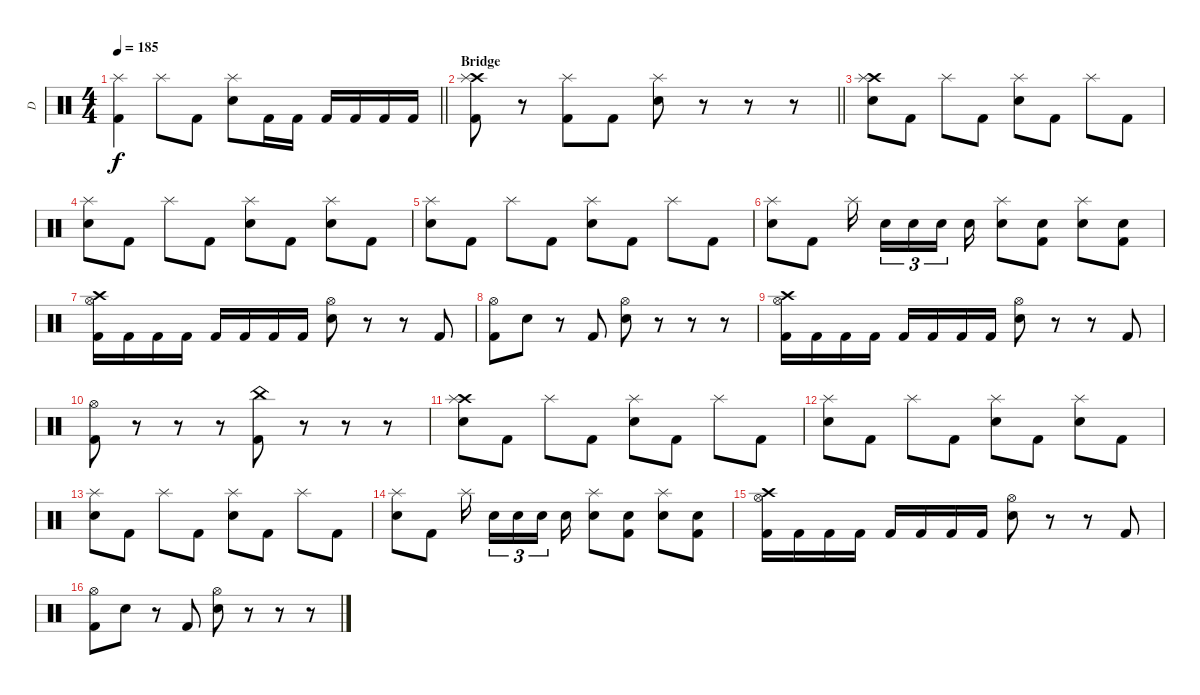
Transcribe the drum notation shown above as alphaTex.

\track ("D" "D") {instrument percussion}
\staff {score}
\articulation defaults
\ts (4 4)
\tempo 185
\clef neutral
\barLineRight lightlight
\ks c
("Kick (hit) 2" "Splash (hit)").4{dy f} "Splash (hit)".8 "Kick (hit) 2".8 ("Electric Snare (hit)" "Splash (hit)").8 "Kick (hit) 2".16 "Kick (hit) 2".16 "Kick (hit) 2".16 "Kick (hit) 2".16 "Kick (hit) 2".16 "Kick (hit) 2".16 |
\section ("" "Bridge")
\barLineRight lightlight
("Crash high (hit)" "Kick (hit) 2" "Splash (hit)").8 r.8 ("Kick (hit) 2" "Splash (hit)").8 "Kick (hit) 2".8 ("Electric Snare (hit)" "Splash (hit)").8 r.8 r.8 r.8 |
("Crash high (hit)" "Electric Snare (hit)" "Splash (hit)").8 "Kick (hit) 2".8 "Splash (hit)".8 "Kick (hit) 2".8 ("Electric Snare (hit)" "Splash (hit)").8 "Kick (hit) 2".8 "Splash (hit)".8 "Kick (hit) 2".8 |
("Electric Snare (hit)" "Splash (hit)").8 "Kick (hit) 2".8 "Splash (hit)".8 "Kick (hit) 2".8 ("Electric Snare (hit)" "Splash (hit)").8 "Kick (hit) 2".8 ("Electric Snare (hit)" "Splash (hit)").8 "Kick (hit) 2".8 |
("Electric Snare (hit)" "Splash (hit)").8 "Kick (hit) 2".8 "Splash (hit)".8 "Kick (hit) 2".8 ("Electric Snare (hit)" "Splash (hit)").8 "Kick (hit) 2".8 "Splash (hit)".8 "Kick (hit) 2".8 |
("Electric Snare (hit)" "Splash (hit)").8 "Kick (hit) 2".8 "Splash (hit)".16{beam splitsecondary} "Electric Snare (hit)".16{tu (3 2)} "Electric Snare (hit)".16{tu (3 2)} "Electric Snare (hit)".16{tu (3 2) beam splitsecondary} "Electric Snare (hit)".16 ("Electric Snare (hit)" "Splash (hit)").8 ("Electric Snare (hit)" "Kick (hit) 2").8 ("Electric Snare (hit)" "Splash (hit)").8 ("Electric Snare (hit)" "Kick (hit) 2").8 |
("Crash high (hit)" "Kick (hit) 2" "Hi-Hat (open)").16 "Kick (hit) 2".16 "Kick (hit) 2".16 "Kick (hit) 2".16 "Kick (hit) 2".16 "Kick (hit) 2".16 "Kick (hit) 2".16 "Kick (hit) 2".16 ("Electric Snare (hit)" "Hi-Hat (open)").8 r.8 r.8 "Kick (hit) 2".8 |
("Kick (hit) 2" "Hi-Hat (open)").8 "Electric Snare (hit)".8 r.8 "Kick (hit) 2".8 ("Electric Snare (hit)" "Hi-Hat (open)").8 r.8 r.8 r.8 |
("Crash high (hit)" "Kick (hit) 2" "Hi-Hat (open)").16 "Kick (hit) 2".16 "Kick (hit) 2".16 "Kick (hit) 2".16 "Kick (hit) 2".16 "Kick (hit) 2".16 "Kick (hit) 2".16 "Kick (hit) 2".16 ("Electric Snare (hit)" "Hi-Hat (open)").8 r.8 r.8 "Kick (hit) 2".8 |
("Kick (hit) 2" "Hi-Hat (open)").8 r.8 r.8 r.8 ("Kick (hit) 2" "China (hit)").8 r.8 r.8 r.8 |
("Crash high (hit)" "Electric Snare (hit)" "Splash (hit)").8 "Kick (hit) 2".8 "Splash (hit)".8 "Kick (hit) 2".8 ("Electric Snare (hit)" "Splash (hit)").8 "Kick (hit) 2".8 "Splash (hit)".8 "Kick (hit) 2".8 |
("Electric Snare (hit)" "Splash (hit)").8 "Kick (hit) 2".8 "Splash (hit)".8 "Kick (hit) 2".8 ("Electric Snare (hit)" "Splash (hit)").8 "Kick (hit) 2".8 ("Electric Snare (hit)" "Splash (hit)").8 "Kick (hit) 2".8 |
("Electric Snare (hit)" "Splash (hit)").8 "Kick (hit) 2".8 "Splash (hit)".8 "Kick (hit) 2".8 ("Electric Snare (hit)" "Splash (hit)").8 "Kick (hit) 2".8 "Splash (hit)".8 "Kick (hit) 2".8 |
("Electric Snare (hit)" "Splash (hit)").8 "Kick (hit) 2".8 "Splash (hit)".16{beam splitsecondary} "Electric Snare (hit)".16{tu (3 2)} "Electric Snare (hit)".16{tu (3 2)} "Electric Snare (hit)".16{tu (3 2) beam splitsecondary} "Electric Snare (hit)".16 ("Electric Snare (hit)" "Splash (hit)").8 ("Electric Snare (hit)" "Kick (hit) 2").8 ("Electric Snare (hit)" "Splash (hit)").8 ("Electric Snare (hit)" "Kick (hit) 2").8 |
("Crash high (hit)" "Kick (hit) 2" "Hi-Hat (open)").16 "Kick (hit) 2".16 "Kick (hit) 2".16 "Kick (hit) 2".16 "Kick (hit) 2".16 "Kick (hit) 2".16 "Kick (hit) 2".16 "Kick (hit) 2".16 ("Electric Snare (hit)" "Hi-Hat (open)").8 r.8 r.8 "Kick (hit) 2".8 |
("Kick (hit) 2" "Hi-Hat (open)").8 "Electric Snare (hit)".8 r.8 "Kick (hit) 2".8 ("Electric Snare (hit)" "Hi-Hat (open)").8 r.8 r.8 r.8
